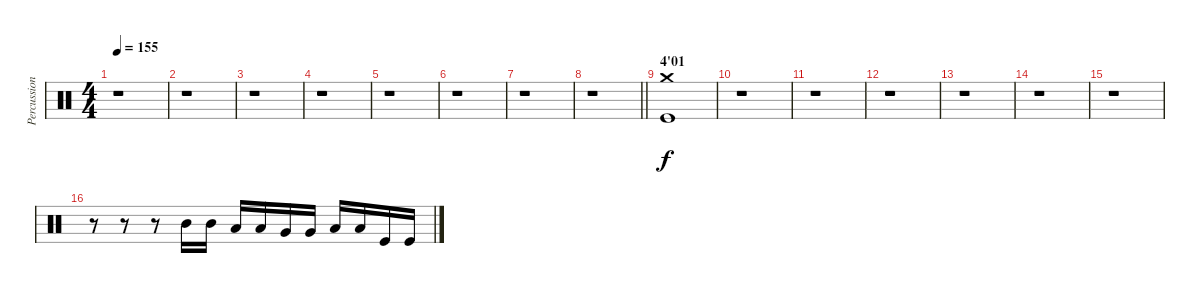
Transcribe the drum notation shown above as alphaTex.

\track ("Percussions" "Percussion") {instrument percussion}
\staff {score}
\articulation defaults
\ts (4 4)
\tempo 155
\clef neutral
\ks c
r.1{dy f} |
r.1 |
r.1 |
r.1 |
r.1 |
r.1 |
r.1 |
\barLineRight lightlight
r.1 |
\section ("" "4'01")
("Crash medium (hit)" "Kick (hit)").1 |
r.1 |
r.1 |
r.1 |
r.1 |
r.1 |
r.1 |
r.8 r.8 r.8 "Mid Tom (hit)".16 "Mid Tom (hit)".16 "Low Tom (hit)".16 "Low Tom (hit)".16 "Very Low Tom (hit)".16 "Very Low Tom (hit)".16 "Low Floor Tom (hit)".16 "Low Floor Tom (hit)".16 "Kick (hit)".16 "Kick (hit)".16
